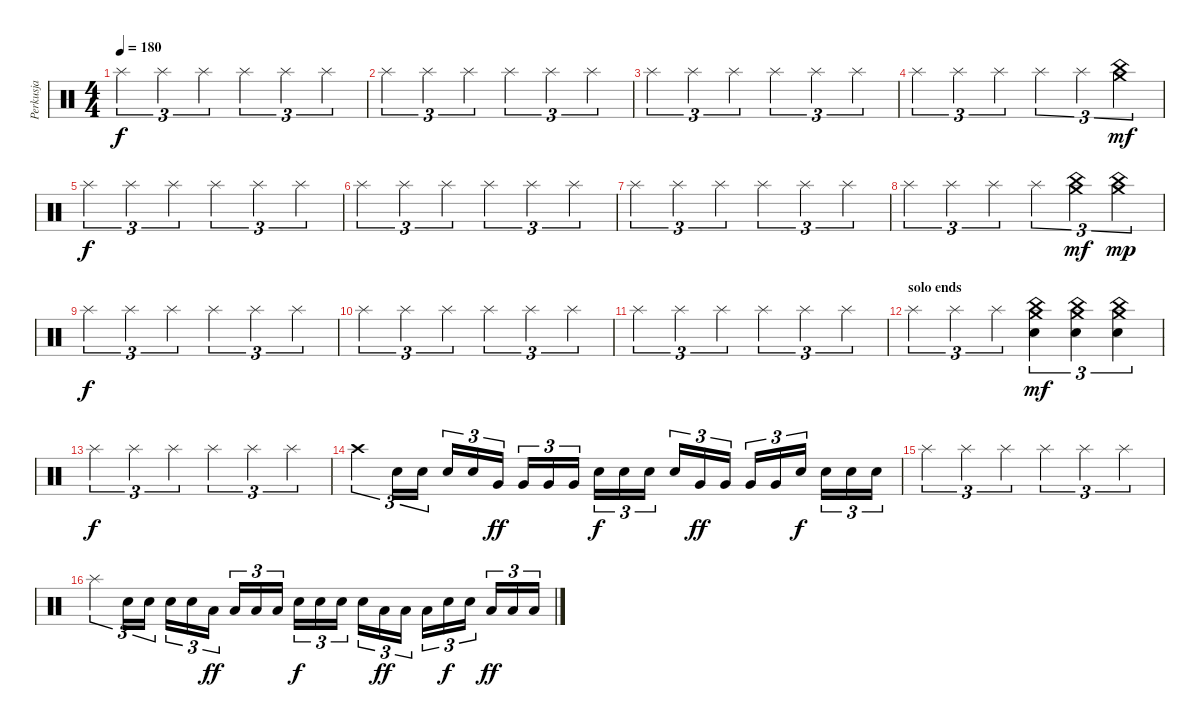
\track ("Perkusja" "Perkusja") {instrument percussion}
\staff {score}
\articulation defaults
\ts (4 4)
\tempo 180
\clef neutral
\ks c "Splash (hit)".4{tu (3 2) dy f} "Splash (hit)".4{tu (3 2)} "Splash (hit)".4{tu (3 2)} "Splash (hit)".4{tu (3 2)} "Splash (hit)".4{tu (3 2)} "Splash (hit)".4{tu (3 2)}
|
"Splash (hit)".4{tu (3 2)} "Splash (hit)".4{tu (3 2)} "Splash (hit)".4{tu (3 2)} "Splash (hit)".4{tu (3 2)} "Splash (hit)".4{tu (3 2)} "Splash (hit)".4{tu (3 2)} |
"Splash (hit)".4{tu (3 2)} "Splash (hit)".4{tu (3 2)} "Splash (hit)".4{tu (3 2)} "Splash (hit)".4{tu (3 2)} "Splash (hit)".4{tu (3 2)} "Splash (hit)".4{tu (3 2)} |
"Splash (hit)".4{tu (3 2)} "Splash (hit)".4{tu (3 2)} "Splash (hit)".4{tu (3 2)} "Splash (hit)".4{tu (3 2)} "Splash (hit)".4{tu (3 2)} ("Crash medium (hit)" "China (hit)").4{tu (3 2) dy mf} |
"Splash (hit)".4{tu (3 2) dy f} "Splash (hit)".4{tu (3 2)} "Splash (hit)".4{tu (3 2)} "Splash (hit)".4{tu (3 2)} "Splash (hit)".4{tu (3 2)} "Splash (hit)".4{tu (3 2)} |
"Splash (hit)".4{tu (3 2)} "Splash (hit)".4{tu (3 2)} "Splash (hit)".4{tu (3 2)} "Splash (hit)".4{tu (3 2)} "Splash (hit)".4{tu (3 2)} "Splash (hit)".4{tu (3 2)} |
"Splash (hit)".4{tu (3 2)} "Splash (hit)".4{tu (3 2)} "Splash (hit)".4{tu (3 2)} "Splash (hit)".4{tu (3 2)} "Splash (hit)".4{tu (3 2)} "Splash (hit)".4{tu (3 2)} |
"Splash (hit)".4{tu (3 2)} "Splash (hit)".4{tu (3 2)} "Splash (hit)".4{tu (3 2)} "Splash (hit)".4{tu (3 2)} ("Crash medium (hit)" "China (hit)").4{tu (3 2) dy mf} ("Crash medium (hit)" "China (hit)").4{tu (3 2) dy mp} |
"Splash (hit)".4{tu (3 2) dy f} "Splash (hit)".4{tu (3 2)} "Splash (hit)".4{tu (3 2)} "Splash (hit)".4{tu (3 2)} "Splash (hit)".4{tu (3 2)} "Splash (hit)".4{tu (3 2)} |
"Splash (hit)".4{tu (3 2)} "Splash (hit)".4{tu (3 2)} "Splash (hit)".4{tu (3 2)} "Splash (hit)".4{tu (3 2)} "Splash (hit)".4{tu (3 2)} "Splash (hit)".4{tu (3 2)} |
"Splash (hit)".4{tu (3 2)} "Splash (hit)".4{tu (3 2)} "Splash (hit)".4{tu (3 2)} "Splash (hit)".4{tu (3 2)} "Splash (hit)".4{tu (3 2)} "Splash (hit)".4{tu (3 2)} |
\section ("" "solo ends")
"Splash (hit)".4{tu (3 2)} "Splash (hit)".4{tu (3 2)} "Splash (hit)".4{tu (3 2)} ("Crash medium (hit)" "China (hit)" "Snare (hit) 2").4{tu (3 2) dy mf} ("Crash medium (hit)" "China (hit)" "Snare (hit) 2").4{tu (3 2)} ("Crash medium (hit)" "China (hit)" "Snare (hit) 2").4{tu (3 2)} |
"Splash (hit)".4{tu (3 2) dy f} "Splash (hit)".4{tu (3 2)} "Splash (hit)".4{tu (3 2)} "Splash (hit)".4{tu (3 2)} "Splash (hit)".4{tu (3 2)} "Splash (hit)".4{tu (3 2)} |
"Crash high (hit)".4{tu (3 2)} "Snare (hit) 2".16{tu (3 2)} "Snare (hit) 2".16{tu (3 2)} "Snare (hit) 2".16{tu (3 2)} "Snare (hit) 2".16{tu (3 2)} "Very Low Tom (hit)".16{tu (3 2) dy ff} "Very Low Tom (hit)".16{tu (3 2)} "Very Low Tom (hit)".16{tu (3 2)} "Very Low Tom (hit)".16{tu (3 2)} "Snare (hit) 2".16{tu (3 2) dy f} "Snare (hit) 2".16{tu (3 2)} "Snare (hit) 2".16{tu (3 2)} "Snare (hit) 2".16{tu (3 2)} "Very Low Tom (hit)".16{tu (3 2) dy ff} "Very Low Tom (hit)".16{tu (3 2)} "Very Low Tom (hit)".16{tu (3 2)} "Very Low Tom (hit)".16{tu (3 2)} "Snare (hit) 2".16{tu (3 2) dy f} "Snare (hit) 2".16{tu (3 2)} "Snare (hit) 2".16{tu (3 2)} "Snare (hit) 2".16{tu (3 2)} |
"Splash (hit)".4{tu (3 2)} "Splash (hit)".4{tu (3 2)} "Splash (hit)".4{tu (3 2)} "Splash (hit)".4{tu (3 2)} "Splash (hit)".4{tu (3 2)} "Splash (hit)".4{tu (3 2)} |
"Splash (hit)".4{tu (3 2)} "Snare (hit) 2".16{tu (3 2)} "Snare (hit) 2".16{tu (3 2)} "Snare (hit) 2".16{tu (3 2)} "Snare (hit) 2".16{tu (3 2)} "Low Floor Tom (hit)".16{tu (3 2) dy ff} "Low Floor Tom (hit)".16{tu (3 2)} "Low Floor Tom (hit)".16{tu (3 2)} "Low Floor Tom (hit)".16{tu (3 2)} "Snare (hit) 2".16{tu (3 2) dy f} "Snare (hit) 2".16{tu (3 2)} "Snare (hit) 2".16{tu (3 2)} "Snare (hit) 2".16{tu (3 2)} "Low Floor Tom (hit)".16{tu (3 2) dy ff} "Low Floor Tom (hit)".16{tu (3 2)} "Low Floor Tom (hit)".16{tu (3 2)} "Snare (hit) 2".16{tu (3 2) dy f} "Snare (hit) 2".16{tu (3 2)} "Low Floor Tom (hit)".16{tu (3 2) dy ff} "Low Floor Tom (hit)".16{tu (3 2)} "Low Floor Tom (hit)".16{tu (3 2)}
